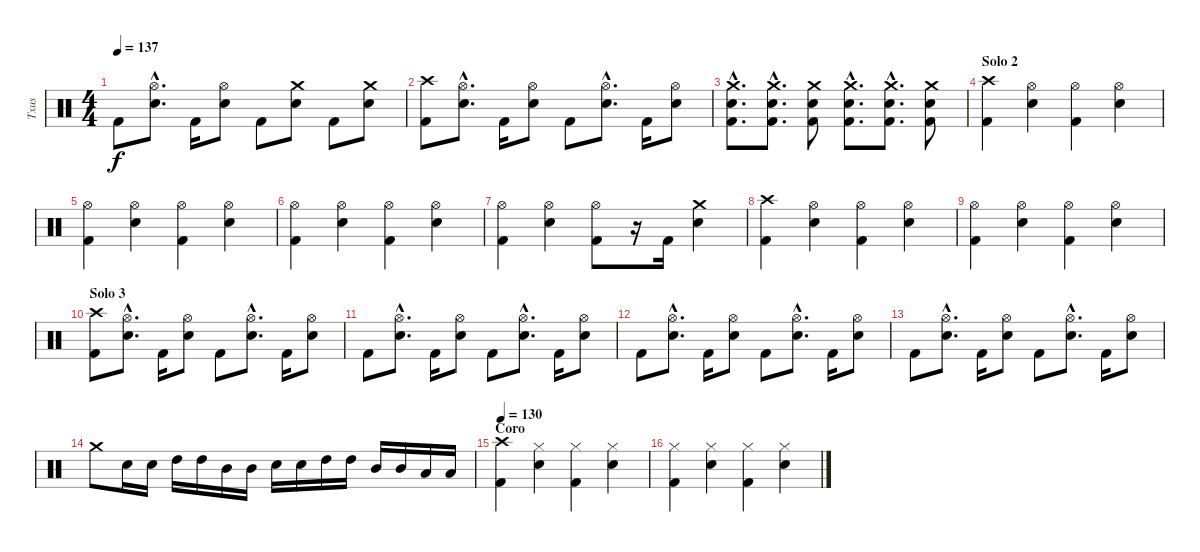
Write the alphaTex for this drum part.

\track ("Txus" "Txus") {instrument percussion}
\staff {score}
\articulation defaults
\ts (4 4)
\tempo 137
\clef neutral
\ks c "Kick (hit) 2".8{dy f}
("Electric Snare (hit)"{hac} "Hi-Hat (open)"{hac}).8{d} "Kick (hit) 2".16 ("Electric Snare (hit)" "Hi-Hat (open)").8 "Kick (hit) 2".8 ("Electric Snare (hit)" "Crash medium (hit)").8 "Kick (hit) 2".8 ("Electric Snare (hit)" "Crash medium (hit)").8 |
("Kick (hit) 2" "Crash high (hit)").8 ("Electric Snare (hit)"{hac} "Hi-Hat (open)"{hac}).8{d} "Kick (hit) 2".16 ("Electric Snare (hit)" "Hi-Hat (open)").8 "Kick (hit) 2".8 ("Electric Snare (hit)"{hac} "Hi-Hat (open)"{hac}).8{d} "Kick (hit) 2".16 ("Electric Snare (hit)" "Hi-Hat (open)").8 |
("Kick (hit) 2"{hac} "Electric Snare (hit)"{hac} "Crash medium (hit)"{hac}).8{d} ("Kick (hit) 2"{hac} "Electric Snare (hit)"{hac} "Crash medium (hit)"{hac}).8{d} ("Kick (hit) 2" "Electric Snare (hit)" "Crash medium (hit)").8 ("Kick (hit) 2"{hac} "Electric Snare (hit)"{hac} "Crash medium (hit)"{hac}).8{d} ("Kick (hit) 2"{hac} "Electric Snare (hit)"{hac} "Crash medium (hit)"{hac}).8{d} ("Kick (hit) 2" "Electric Snare (hit)" "Crash medium (hit)").8 |
\section ("" "Solo 2")
("Kick (hit) 2" "Crash high (hit)").4 ("Electric Snare (hit)" "Hi-Hat (open)").4 ("Kick (hit) 2" "Hi-Hat (open)").4 ("Electric Snare (hit)" "Hi-Hat (open)").4 |
("Kick (hit) 2" "Hi-Hat (open)").4 ("Electric Snare (hit)" "Hi-Hat (open)").4 ("Kick (hit) 2" "Hi-Hat (open)").4 ("Electric Snare (hit)" "Hi-Hat (open)").4 |
("Kick (hit) 2" "Hi-Hat (open)").4 ("Electric Snare (hit)" "Hi-Hat (open)").4 ("Kick (hit) 2" "Hi-Hat (open)").4 ("Electric Snare (hit)" "Hi-Hat (open)").4 |
("Kick (hit) 2" "Hi-Hat (open)").4 ("Electric Snare (hit)" "Hi-Hat (open)").4 ("Kick (hit) 2" "Hi-Hat (open)").8 r.16 "Kick (hit) 2".16 ("Electric Snare (hit)" "Crash medium (hit)").4 |
("Kick (hit) 2" "Crash high (hit)").4 ("Electric Snare (hit)" "Hi-Hat (open)").4 ("Kick (hit) 2" "Hi-Hat (open)").4 ("Electric Snare (hit)" "Hi-Hat (open)").4 |
("Kick (hit) 2" "Hi-Hat (open)").4 ("Electric Snare (hit)" "Hi-Hat (open)").4 ("Kick (hit) 2" "Hi-Hat (open)").4 ("Electric Snare (hit)" "Hi-Hat (open)").4 |
\section ("" "Solo 3")
("Kick (hit) 2" "Crash high (hit)").8 ("Electric Snare (hit)"{hac} "Hi-Hat (open)"{hac}).8{d} "Kick (hit) 2".16 ("Electric Snare (hit)" "Hi-Hat (open)").8 "Kick (hit) 2".8 ("Electric Snare (hit)"{hac} "Hi-Hat (open)"{hac}).8{d} "Kick (hit) 2".16 ("Electric Snare (hit)" "Hi-Hat (open)").8 |
"Kick (hit) 2".8 ("Electric Snare (hit)"{hac} "Hi-Hat (open)"{hac}).8{d} "Kick (hit) 2".16 ("Electric Snare (hit)" "Hi-Hat (open)").8 "Kick (hit) 2".8 ("Electric Snare (hit)"{hac} "Hi-Hat (open)"{hac}).8{d} "Kick (hit) 2".16 ("Electric Snare (hit)" "Hi-Hat (open)").8 |
"Kick (hit) 2".8 ("Electric Snare (hit)"{hac} "Hi-Hat (open)"{hac}).8{d} "Kick (hit) 2".16 ("Electric Snare (hit)" "Hi-Hat (open)").8 "Kick (hit) 2".8 ("Electric Snare (hit)"{hac} "Hi-Hat (open)"{hac}).8{d} "Kick (hit) 2".16 ("Electric Snare (hit)" "Hi-Hat (open)").8 |
"Kick (hit) 2".8 ("Electric Snare (hit)"{hac} "Hi-Hat (open)"{hac}).8{d} "Kick (hit) 2".16 ("Electric Snare (hit)" "Hi-Hat (open)").8 "Kick (hit) 2".8 ("Electric Snare (hit)"{hac} "Hi-Hat (open)"{hac}).8{d} "Kick (hit) 2".16 ("Electric Snare (hit)" "Hi-Hat (open)").8 |
"Crash medium (hit)".8 "Electric Snare (hit)".16 "Electric Snare (hit)".16 "High Tom (hit)".16 "High Tom (hit)".16 "Mid Tom (hit)".16 "Mid Tom (hit)".16 "Electric Snare (hit)".16 "Electric Snare (hit)".16 "High Tom (hit)".16 "High Tom (hit)".16 "Mid Tom (hit)".16 "Mid Tom (hit)".16 "Low Tom (hit)".16 "Low Tom (hit)".16 |
\section ("" "Coro")
\tempo 130
("Kick (hit) 2" "Crash high (hit)").4{volume 16} ("Electric Snare (hit)" "Hi-Hat (closed)").4 ("Kick (hit) 2" "Hi-Hat (closed)").4 ("Electric Snare (hit)" "Hi-Hat (closed)").4 |
("Kick (hit) 2" "Hi-Hat (closed)").4 ("Electric Snare (hit)" "Hi-Hat (closed)").4 ("Kick (hit) 2" "Hi-Hat (closed)").4 ("Electric Snare (hit)" "Hi-Hat (closed)").4
